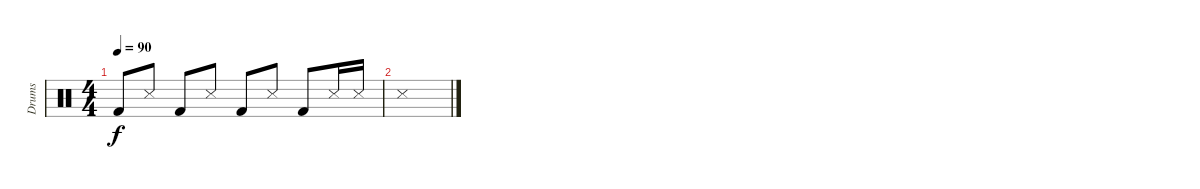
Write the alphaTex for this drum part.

\track ("Drums" "Drums") {instrument percussion}
\staff {score}
\articulation defaults
\ts (4 4)
\tempo 90
\clef neutral
\ks c "Kick (hit) 2".8{dy f} "Snare (side stick) 3".8 "Kick (hit) 2".8 "Snare (side stick) 3".8 "Kick (hit) 2".8 "Snare (side stick) 3".8 "Kick (hit) 2".8 "Snare (side stick) 3".16 "Snare (side stick) 3".16
|
"Snare (side stick) 3".1
